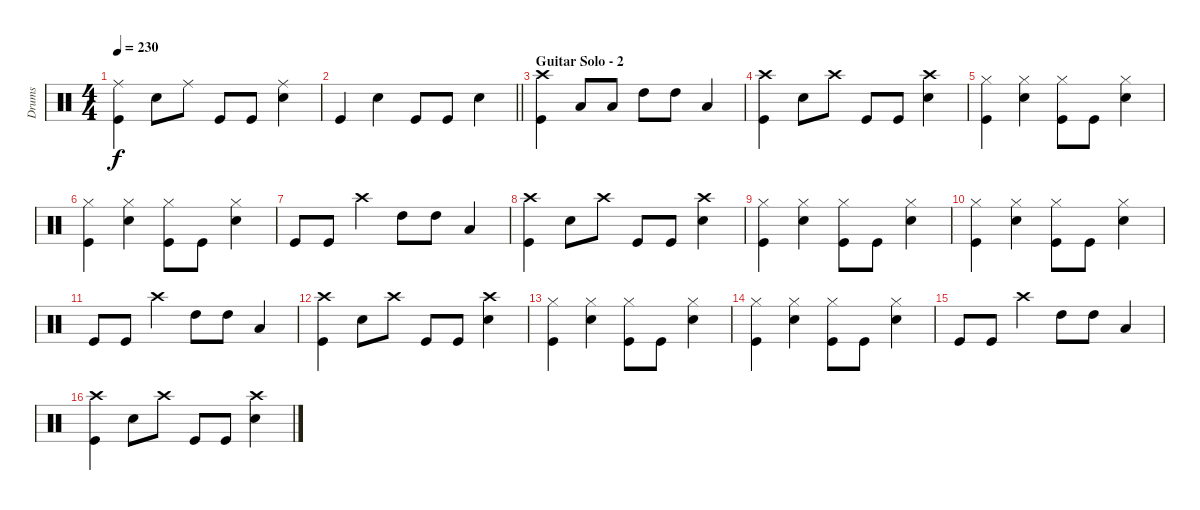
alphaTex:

\track ("Drums" "Drums") {instrument percussion}
\staff {score}
\articulation defaults
\ts (4 4)
\tempo 230
\clef neutral
\ks c
("Ride (middle)" "Kick (hit)").4{dy f} "Snare (hit) 2".8 "Ride (middle)".8 "Kick (hit)".8 "Kick (hit)".8 ("Ride (middle)" "Snare (hit) 2").4 |
\barLineRight lightlight "Kick (hit)".4 "Snare (hit) 2".4 "Kick (hit)".8 "Kick (hit)".8 "Snare (hit) 2".4
|
\section ("" "Guitar Solo - 2")
("Crash high (hit)" "Kick (hit)").4 "Low Tom (hit)".8 "Low Tom (hit)".8 "High Tom (hit)".8 "High Tom (hit)".8 "Low Floor Tom (hit)".4 |
("Crash high (hit)" "Kick (hit)").4 "Snare (hit) 2".8 "Crash high (hit)".8 "Kick (hit)".8 "Kick (hit)".8 ("Crash high (hit)" "Snare (hit) 2").4 |
("Hi-Hat (closed)" "Kick (hit)").4 ("Hi-Hat (closed)" "Snare (hit) 2").4 ("Hi-Hat (closed)" "Kick (hit)").8 "Kick (hit)".8 ("Hi-Hat (closed)" "Snare (hit) 2").4 |
("Hi-Hat (closed)" "Kick (hit)").4 ("Hi-Hat (closed)" "Snare (hit) 2").4 ("Hi-Hat (closed)" "Kick (hit)").8 "Kick (hit)".8 ("Hi-Hat (closed)" "Snare (hit) 2").4 |
"Kick (hit)".8 "Kick (hit)".8 "Crash high (hit)".4 "High Tom (hit)".8 "High Tom (hit)".8 "Low Floor Tom (hit)".4 |
("Crash high (hit)" "Kick (hit)").4 "Snare (hit) 2".8 "Crash high (hit)".8 "Kick (hit)".8 "Kick (hit)".8 ("Crash high (hit)" "Snare (hit) 2").4 |
("Hi-Hat (closed)" "Kick (hit)").4 ("Hi-Hat (closed)" "Snare (hit) 2").4 ("Hi-Hat (closed)" "Kick (hit)").8 "Kick (hit)".8 ("Hi-Hat (closed)" "Snare (hit) 2").4 |
("Hi-Hat (closed)" "Kick (hit)").4 ("Hi-Hat (closed)" "Snare (hit) 2").4 ("Hi-Hat (closed)" "Kick (hit)").8 "Kick (hit)".8 ("Hi-Hat (closed)" "Snare (hit) 2").4 |
"Kick (hit)".8 "Kick (hit)".8 "Crash high (hit)".4 "High Tom (hit)".8 "High Tom (hit)".8 "Low Floor Tom (hit)".4 |
("Crash high (hit)" "Kick (hit)").4 "Snare (hit) 2".8 "Crash high (hit)".8 "Kick (hit)".8 "Kick (hit)".8 ("Crash high (hit)" "Snare (hit) 2").4 |
("Hi-Hat (closed)" "Kick (hit)").4 ("Hi-Hat (closed)" "Snare (hit) 2").4 ("Hi-Hat (closed)" "Kick (hit)").8 "Kick (hit)".8 ("Hi-Hat (closed)" "Snare (hit) 2").4 |
("Hi-Hat (closed)" "Kick (hit)").4 ("Hi-Hat (closed)" "Snare (hit) 2").4 ("Hi-Hat (closed)" "Kick (hit)").8 "Kick (hit)".8 ("Hi-Hat (closed)" "Snare (hit) 2").4 |
"Kick (hit)".8 "Kick (hit)".8 "Crash high (hit)".4 "High Tom (hit)".8 "High Tom (hit)".8 "Low Floor Tom (hit)".4 |
("Crash high (hit)" "Kick (hit)").4 "Snare (hit) 2".8 "Crash high (hit)".8 "Kick (hit)".8 "Kick (hit)".8 ("Crash high (hit)" "Snare (hit) 2").4
